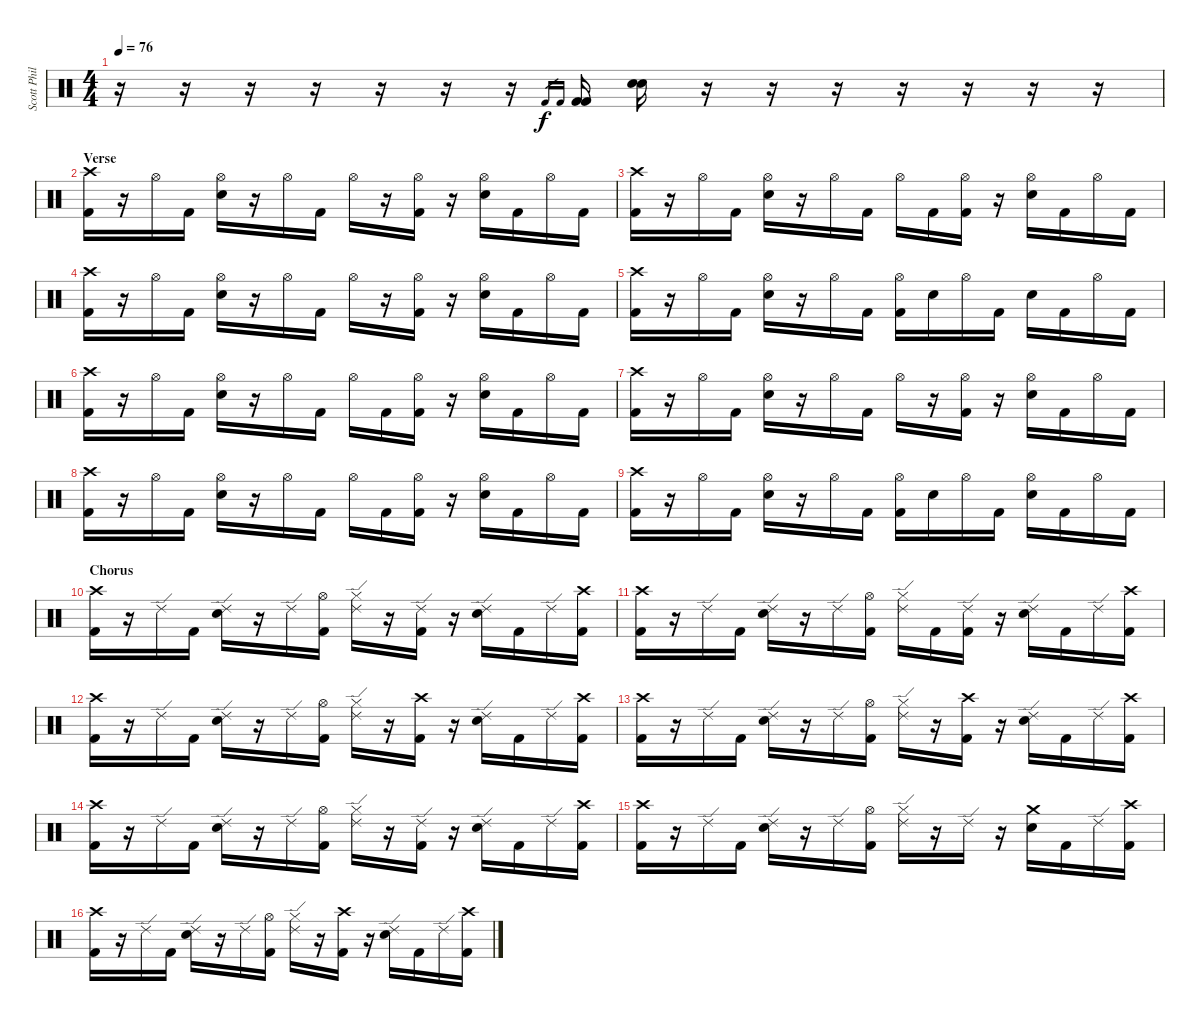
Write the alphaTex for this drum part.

\track ("Scott Phillips - Drums" "Scott Phil") {instrument percussion}
\staff {score}
\articulation defaults
\ts (4 4)
\tempo 76
\clef neutral
\ks c
r.16{dy f} r.16 r.16 r.16 r.16 r.16 r.16 "Kick (hit) 2".16{gr} "Kick (hit) 2".16{gr} ("Kick (hit) 2" "Kick (hit) 2").16 ("Snare (hit) 2" "Snare (hit) 2").16 r.16 r.16 r.16 r.16 r.16 r.16 r.16 |
\section ("" "Verse")
("Crash high (hit)" "Kick (hit) 2").16 r.16 "Hi-Hat (open)".16 "Kick (hit) 2".16 ("Hi-Hat (open)" "Snare (hit) 2").16 r.16 "Hi-Hat (open)".16 "Kick (hit) 2".16 "Hi-Hat (open)".16 r.16 ("Hi-Hat (open)" "Kick (hit) 2").16 r.16 ("Hi-Hat (open)" "Snare (hit) 2").16 "Kick (hit) 2".16 "Hi-Hat (open)".16 "Kick (hit) 2".16 |
("Crash high (hit)" "Kick (hit) 2").16 r.16 "Hi-Hat (open)".16 "Kick (hit) 2".16 ("Hi-Hat (open)" "Snare (hit) 2").16 r.16 "Hi-Hat (open)".16 "Kick (hit) 2".16 "Hi-Hat (open)".16 "Kick (hit) 2".16 ("Hi-Hat (open)" "Kick (hit) 2").16 r.16 ("Hi-Hat (open)" "Snare (hit) 2").16 "Kick (hit) 2".16 "Hi-Hat (open)".16 "Kick (hit) 2".16 |
("Crash high (hit)" "Kick (hit) 2").16 r.16 "Hi-Hat (open)".16 "Kick (hit) 2".16 ("Hi-Hat (open)" "Snare (hit) 2").16 r.16 "Hi-Hat (open)".16 "Kick (hit) 2".16 "Hi-Hat (open)".16 r.16 ("Hi-Hat (open)" "Kick (hit) 2").16 r.16 ("Hi-Hat (open)" "Snare (hit) 2").16 "Kick (hit) 2".16 "Hi-Hat (open)".16 "Kick (hit) 2".16 |
("Crash high (hit)" "Kick (hit) 2").16 r.16 "Hi-Hat (open)".16 "Kick (hit) 2".16 ("Hi-Hat (open)" "Snare (hit) 2").16 r.16 "Hi-Hat (open)".16 "Kick (hit) 2".16 ("Hi-Hat (open)" "Kick (hit) 2").16 "Snare (hit) 2".16 "Hi-Hat (open)".16 "Kick (hit) 2".16 "Snare (hit) 2".16 "Kick (hit) 2".16 "Hi-Hat (open)".16 "Kick (hit) 2".16 |
("Crash high (hit)" "Kick (hit) 2").16 r.16 "Hi-Hat (open)".16 "Kick (hit) 2".16 ("Hi-Hat (open)" "Snare (hit) 2").16 r.16 "Hi-Hat (open)".16 "Kick (hit) 2".16 "Hi-Hat (open)".16 "Kick (hit) 2".16 ("Hi-Hat (open)" "Kick (hit) 2").16 r.16 ("Hi-Hat (open)" "Snare (hit) 2").16 "Kick (hit) 2".16 "Hi-Hat (open)".16 "Kick (hit) 2".16 |
("Crash high (hit)" "Kick (hit) 2").16 r.16 "Hi-Hat (open)".16 "Kick (hit) 2".16 ("Hi-Hat (open)" "Snare (hit) 2").16 r.16 "Hi-Hat (open)".16 "Kick (hit) 2".16 "Hi-Hat (open)".16 r.16 ("Hi-Hat (open)" "Kick (hit) 2").16 r.16 ("Hi-Hat (open)" "Snare (hit) 2").16 "Kick (hit) 2".16 "Hi-Hat (open)".16 "Kick (hit) 2".16 |
("Crash high (hit)" "Kick (hit) 2").16 r.16 "Hi-Hat (open)".16 "Kick (hit) 2".16 ("Hi-Hat (open)" "Snare (hit) 2").16 r.16 "Hi-Hat (open)".16 "Kick (hit) 2".16 "Hi-Hat (open)".16 "Kick (hit) 2".16 ("Hi-Hat (open)" "Kick (hit) 2").16 r.16 ("Hi-Hat (open)" "Snare (hit) 2").16 "Kick (hit) 2".16 "Hi-Hat (open)".16 "Kick (hit) 2".16 |
("Crash high (hit)" "Kick (hit) 2").16 r.16 "Hi-Hat (open)".16 "Kick (hit) 2".16 ("Hi-Hat (open)" "Snare (hit) 2").16 r.16 "Hi-Hat (open)".16 "Kick (hit) 2".16 ("Hi-Hat (open)" "Kick (hit) 2").16 "Snare (hit) 2".16 "Hi-Hat (open)".16 "Kick (hit) 2".16 ("Hi-Hat (open)" "Snare (hit) 2").16 "Kick (hit) 2".16 "Hi-Hat (open)".16 "Kick (hit) 2".16 |
\section ("" "Chorus")
("Crash high (hit)" "Kick (hit) 2").16 r.16 "Ride (edge) 2".16 "Kick (hit) 2".16 ("Ride (edge) 2" "Snare (hit) 2").16 r.16 "Ride (edge) 2".16 ("Hi-Hat (open)" "Kick (hit) 2").16 ("Ride (edge) 2" "Hi-Hat (closed)").16 r.16 ("Ride (edge) 2" "Kick (hit) 2").16 r.16 ("Ride (edge) 2" "Snare (hit) 2").16 "Kick (hit) 2".16 "Ride (edge) 2".16 ("Crash high (hit)" "Kick (hit) 2").16 |
("Crash high (hit)" "Kick (hit) 2").16 r.16 "Ride (edge) 2".16 "Kick (hit) 2".16 ("Ride (edge) 2" "Snare (hit) 2").16 r.16 "Ride (edge) 2".16 ("Hi-Hat (open)" "Kick (hit) 2").16 ("Ride (edge) 2" "Hi-Hat (closed)").16 "Kick (hit) 2".16 ("Ride (edge) 2" "Kick (hit) 2").16 r.16 ("Ride (edge) 2" "Snare (hit) 2").16 "Kick (hit) 2".16 "Ride (edge) 2".16 ("Crash high (hit)" "Kick (hit) 2").16 |
("Crash high (hit)" "Kick (hit) 2").16 r.16 "Ride (edge) 2".16 "Kick (hit) 2".16 ("Ride (edge) 2" "Snare (hit) 2").16 r.16 "Ride (edge) 2".16 ("Hi-Hat (open)" "Kick (hit) 2").16 ("Ride (edge) 2" "Hi-Hat (closed)").16 r.16 ("Crash high (hit)" "Kick (hit) 2").16 r.16 ("Ride (edge) 2" "Snare (hit) 2").16 "Kick (hit) 2".16 "Ride (edge) 2".16 ("Crash high (hit)" "Kick (hit) 2").16 |
("Crash high (hit)" "Kick (hit) 2").16 r.16 "Ride (edge) 2".16 "Kick (hit) 2".16 ("Ride (edge) 2" "Snare (hit) 2").16 r.16 "Ride (edge) 2".16 ("Hi-Hat (open)" "Kick (hit) 2").16 ("Ride (edge) 2" "Hi-Hat (closed)").16 r.16 ("Crash high (hit)" "Kick (hit) 2").16 r.16 ("Ride (edge) 2" "Snare (hit) 2").16 "Kick (hit) 2".16 "Ride (edge) 2".16 ("Crash high (hit)" "Kick (hit) 2").16 |
("Crash high (hit)" "Kick (hit) 2").16 r.16 "Ride (edge) 2".16 "Kick (hit) 2".16 ("Ride (edge) 2" "Snare (hit) 2").16 r.16 "Ride (edge) 2".16 ("Hi-Hat (open)" "Kick (hit) 2").16 ("Ride (edge) 2" "Hi-Hat (closed)").16 r.16 ("Ride (edge) 2" "Kick (hit) 2").16 r.16 ("Ride (edge) 2" "Snare (hit) 2").16 "Kick (hit) 2".16 "Ride (edge) 2".16 ("Crash high (hit)" "Kick (hit) 2").16 |
("Crash high (hit)" "Kick (hit) 2").16 r.16 "Ride (edge) 2".16 "Kick (hit) 2".16 ("Ride (edge) 2" "Snare (hit) 2").16 r.16 "Ride (edge) 2".16 ("Hi-Hat (open)" "Kick (hit) 2").16 ("Ride (edge) 2" "Hi-Hat (closed)").16 r.16 "Ride (edge) 2".16 r.16 ("Crash medium (hit)" "Snare (hit) 2").16 "Kick (hit) 2".16 "Ride (edge) 2".16 ("Crash high (hit)" "Kick (hit) 2").16 |
("Crash high (hit)" "Kick (hit) 2").16 r.16 "Ride (edge) 2".16 "Kick (hit) 2".16 ("Ride (edge) 2" "Snare (hit) 2").16 r.16 "Ride (edge) 2".16 ("Hi-Hat (open)" "Kick (hit) 2").16 ("Ride (edge) 2" "Hi-Hat (closed)").16 r.16 ("Crash high (hit)" "Kick (hit) 2").16 r.16 ("Ride (edge) 2" "Snare (hit) 2").16 "Kick (hit) 2".16 "Ride (edge) 2".16 ("Crash high (hit)" "Kick (hit) 2").16
